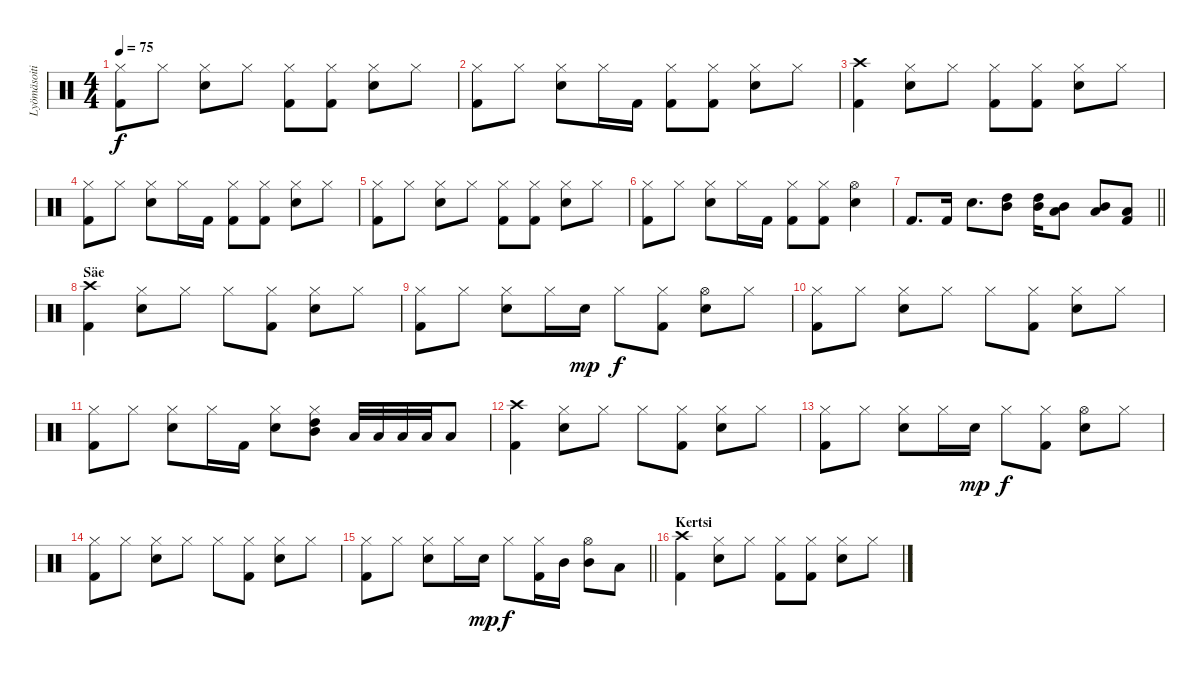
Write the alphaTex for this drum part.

\track ("Lyömäsoitin" "Lyömäsoiti") {instrument percussion}
\staff {score}
\articulation defaults
\ts (4 4)
\tempo 75
\clef neutral
\ks c
("Hi-Hat (closed)" "Kick (hit) 2").8{dy f} "Hi-Hat (closed)".8 ("Hi-Hat (closed)" "Snare (hit) 2").8 "Hi-Hat (closed)".8 ("Hi-Hat (closed)" "Kick (hit) 2").8 ("Hi-Hat (closed)" "Kick (hit) 2").8 ("Hi-Hat (closed)" "Snare (hit) 2").8 "Hi-Hat (closed)".8 |
("Hi-Hat (closed)" "Kick (hit) 2").8 "Hi-Hat (closed)".8 ("Hi-Hat (closed)" "Snare (hit) 2").8 "Hi-Hat (closed)".16 "Kick (hit) 2".16 ("Hi-Hat (closed)" "Kick (hit) 2").8 ("Hi-Hat (closed)" "Kick (hit) 2").8 ("Hi-Hat (closed)" "Snare (hit) 2").8 "Hi-Hat (closed)".8 |
("Crash high (hit)" "Kick (hit) 2").4 ("Hi-Hat (closed)" "Snare (hit) 2").8 "Hi-Hat (closed)".8 ("Hi-Hat (closed)" "Kick (hit) 2").8 ("Hi-Hat (closed)" "Kick (hit) 2").8 ("Hi-Hat (closed)" "Snare (hit) 2").8 "Hi-Hat (closed)".8 |
("Hi-Hat (closed)" "Kick (hit) 2").8 "Hi-Hat (closed)".8 ("Hi-Hat (closed)" "Snare (hit) 2").8 "Hi-Hat (closed)".16 "Kick (hit) 2".16 ("Hi-Hat (closed)" "Kick (hit) 2").8 ("Hi-Hat (closed)" "Kick (hit) 2").8 ("Hi-Hat (closed)" "Snare (hit) 2").8 "Hi-Hat (closed)".8 |
("Hi-Hat (closed)" "Kick (hit) 2").8 "Hi-Hat (closed)".8 ("Hi-Hat (closed)" "Snare (hit) 2").8 "Hi-Hat (closed)".8 ("Hi-Hat (closed)" "Kick (hit) 2").8 ("Hi-Hat (closed)" "Kick (hit) 2").8 ("Hi-Hat (closed)" "Snare (hit) 2").8 "Hi-Hat (closed)".8 |
("Hi-Hat (closed)" "Kick (hit) 2").8 "Hi-Hat (closed)".8 ("Hi-Hat (closed)" "Snare (hit) 2").8 "Hi-Hat (closed)".16 "Kick (hit) 2".16 ("Hi-Hat (closed)" "Kick (hit) 2").8 ("Hi-Hat (closed)" "Kick (hit) 2").8 ("Hi-Hat (open)" "Snare (hit) 2").4 |
\barLineRight lightlight "Kick (hit) 2".8{d} "Kick (hit) 2".16 "Snare (hit) 2".8{d}
("High Tom (hit)" "Mid Tom (hit)").8 ("High Tom (hit)" "Mid Tom (hit)").16 ("Mid Tom (hit)" "Low Tom (hit)").8 ("Mid Tom (hit)" "Low Tom (hit)").8 ("Low Tom (hit)" "Kick (hit) 2").8 |
\section ("" "Säe")
("Crash high (hit)" "Kick (hit) 2").4 ("Hi-Hat (closed)" "Snare (hit) 2").8 "Hi-Hat (closed)".8 "Hi-Hat (closed)".8 ("Hi-Hat (closed)" "Kick (hit) 2").8 ("Hi-Hat (closed)" "Snare (hit) 2").8 "Hi-Hat (closed)".8 |
("Hi-Hat (closed)" "Kick (hit) 2").8 "Hi-Hat (closed)".8 ("Hi-Hat (closed)" "Snare (hit) 2").8 "Hi-Hat (closed)".16 "Snare (hit) 2".16{dy mp} "Hi-Hat (closed)".8{dy f} ("Hi-Hat (closed)" "Kick (hit) 2").8 ("Hi-Hat (open)" "Snare (hit) 2").8 "Hi-Hat (closed)".8 |
("Hi-Hat (closed)" "Kick (hit) 2").8 "Hi-Hat (closed)".8 ("Hi-Hat (closed)" "Snare (hit) 2").8 "Hi-Hat (closed)".8 "Hi-Hat (closed)".8 ("Hi-Hat (closed)" "Kick (hit) 2").8 ("Hi-Hat (closed)" "Snare (hit) 2").8 "Hi-Hat (closed)".8 |
("Hi-Hat (closed)" "Kick (hit) 2").8 "Hi-Hat (closed)".8 ("Hi-Hat (closed)" "Snare (hit) 2").8 "Hi-Hat (closed)".16 "Kick (hit) 2".16 ("Hi-Hat (closed)" "Snare (hit) 2").8 ("Hi-Hat (closed)" "Mid Tom (hit)" "High Tom (hit)").8 "Low Tom (hit)".32 "Low Tom (hit)".32 "Low Tom (hit)".32 "Low Tom (hit)".32 "Low Tom (hit)".8 |
("Crash high (hit)" "Kick (hit) 2").4 ("Hi-Hat (closed)" "Snare (hit) 2").8 "Hi-Hat (closed)".8 "Hi-Hat (closed)".8 ("Hi-Hat (closed)" "Kick (hit) 2").8 ("Hi-Hat (closed)" "Snare (hit) 2").8 "Hi-Hat (closed)".8 |
("Hi-Hat (closed)" "Kick (hit) 2").8 "Hi-Hat (closed)".8 ("Hi-Hat (closed)" "Snare (hit) 2").8 "Hi-Hat (closed)".16 "Snare (hit) 2".16{dy mp} "Hi-Hat (closed)".8{dy f} ("Hi-Hat (closed)" "Kick (hit) 2").8 ("Hi-Hat (open)" "Snare (hit) 2").8 "Hi-Hat (closed)".8 |
("Hi-Hat (closed)" "Kick (hit) 2").8 "Hi-Hat (closed)".8 ("Hi-Hat (closed)" "Snare (hit) 2").8 "Hi-Hat (closed)".8 "Hi-Hat (closed)".8 ("Hi-Hat (closed)" "Kick (hit) 2").8 ("Hi-Hat (closed)" "Snare (hit) 2").8 "Hi-Hat (closed)".8 |
\barLineRight lightlight
("Hi-Hat (closed)" "Kick (hit) 2").8 "Hi-Hat (closed)".8 ("Hi-Hat (closed)" "Snare (hit) 2").8 "Hi-Hat (closed)".16 "Snare (hit) 2".16{dy mp} "Hi-Hat (closed)".8{dy f} ("Hi-Hat (closed)" "Kick (hit) 2").16 "Mid Tom (hit)".16 ("Hi-Hat (open)" "Mid Tom (hit)").8 "Low Tom (hit)".8 |
\section ("" "Kertsi")
("Crash high (hit)" "Kick (hit) 2").4 ("Hi-Hat (closed)" "Snare (hit) 2").8 "Hi-Hat (closed)".8 ("Hi-Hat (closed)" "Kick (hit) 2").8 ("Hi-Hat (closed)" "Kick (hit) 2").8 ("Hi-Hat (closed)" "Snare (hit) 2").8 "Hi-Hat (closed)".8
